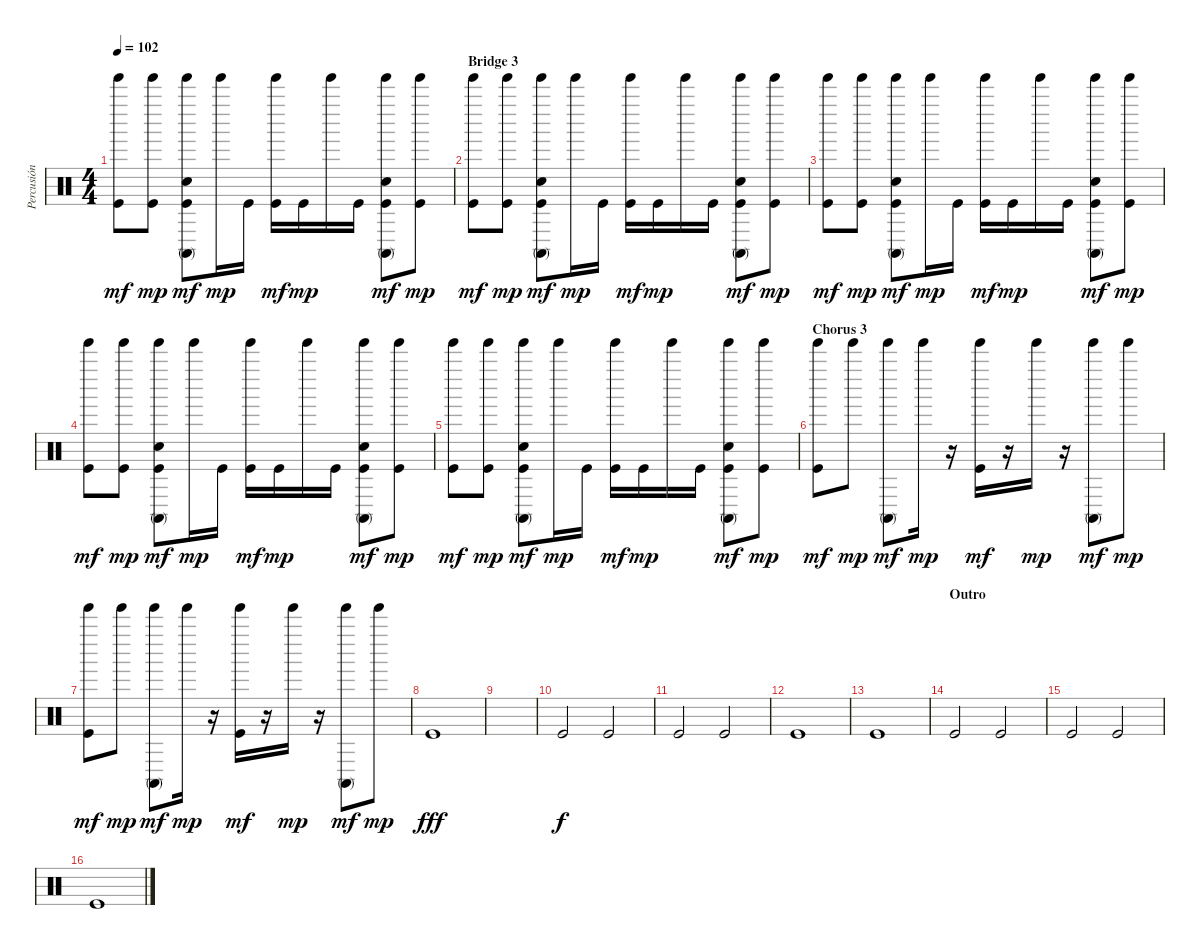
\track ("Percusión" "Percusión") {instrument percussion}
\staff {score}
\articulation defaults
\ts (4 4)
\tempo 102
\clef neutral
\ks c
("Kick (hit)" "Tinkle Bell (hit)").8{dy mf} ("Kick (hit)" "Tinkle Bell (hit)").8{dy mp} ("Kick (hit)" "Snare (hit) 2" "Conga high (mute)" "Tinkle Bell (hit)").8{dy mf} "Tinkle Bell (hit)".16{dy mp} "Kick (hit)".16 ("Kick (hit)" "Tinkle Bell (hit)").16{dy mf} "Kick (hit)".16{dy mp} "Tinkle Bell (hit)".16 "Kick (hit)".16 ("Kick (hit)" "Snare (hit) 2" "Conga high (mute)" "Tinkle Bell (hit)").8{dy mf} ("Kick (hit)" "Tinkle Bell (hit)").8{dy mp} |
\section ("" "Bridge 3")
("Kick (hit)" "Tinkle Bell (hit)").8{dy mf} ("Kick (hit)" "Tinkle Bell (hit)").8{dy mp} ("Kick (hit)" "Snare (hit) 2" "Conga high (mute)" "Tinkle Bell (hit)").8{dy mf} "Tinkle Bell (hit)".16{dy mp} "Kick (hit)".16 ("Kick (hit)" "Tinkle Bell (hit)").16{dy mf} "Kick (hit)".16{dy mp} "Tinkle Bell (hit)".16 "Kick (hit)".16 ("Kick (hit)" "Snare (hit) 2" "Conga high (mute)" "Tinkle Bell (hit)").8{dy mf} ("Kick (hit)" "Tinkle Bell (hit)").8{dy mp} |
("Kick (hit)" "Tinkle Bell (hit)").8{dy mf} ("Kick (hit)" "Tinkle Bell (hit)").8{dy mp} ("Kick (hit)" "Snare (hit) 2" "Conga high (mute)" "Tinkle Bell (hit)").8{dy mf} "Tinkle Bell (hit)".16{dy mp} "Kick (hit)".16 ("Kick (hit)" "Tinkle Bell (hit)").16{dy mf} "Kick (hit)".16{dy mp} "Tinkle Bell (hit)".16 "Kick (hit)".16 ("Kick (hit)" "Snare (hit) 2" "Conga high (mute)" "Tinkle Bell (hit)").8{dy mf} ("Kick (hit)" "Tinkle Bell (hit)").8{dy mp} |
("Kick (hit)" "Tinkle Bell (hit)").8{dy mf} ("Kick (hit)" "Tinkle Bell (hit)").8{dy mp} ("Kick (hit)" "Snare (hit) 2" "Conga high (mute)" "Tinkle Bell (hit)").8{dy mf} "Tinkle Bell (hit)".16{dy mp} "Kick (hit)".16 ("Kick (hit)" "Tinkle Bell (hit)").16{dy mf} "Kick (hit)".16{dy mp} "Tinkle Bell (hit)".16 "Kick (hit)".16 ("Kick (hit)" "Snare (hit) 2" "Conga high (mute)" "Tinkle Bell (hit)").8{dy mf} ("Kick (hit)" "Tinkle Bell (hit)").8{dy mp} |
("Kick (hit)" "Tinkle Bell (hit)").8{dy mf} ("Kick (hit)" "Tinkle Bell (hit)").8{dy mp} ("Kick (hit)" "Snare (hit) 2" "Conga high (mute)" "Tinkle Bell (hit)").8{dy mf} "Tinkle Bell (hit)".16{dy mp} "Kick (hit)".16 ("Kick (hit)" "Tinkle Bell (hit)").16{dy mf} "Kick (hit)".16{dy mp} "Tinkle Bell (hit)".16 "Kick (hit)".16 ("Kick (hit)" "Snare (hit) 2" "Conga high (mute)" "Tinkle Bell (hit)").8{dy mf} ("Kick (hit)" "Tinkle Bell (hit)").8{dy mp} |
\section ("" "Chorus 3")
("Kick (hit)" "Tinkle Bell (hit)").8{dy mf} "Tinkle Bell (hit)".8{dy mp} ("Conga high (mute)" "Tinkle Bell (hit)").8{dy mf} "Tinkle Bell (hit)".16{dy mp} r.16 ("Kick (hit)" "Tinkle Bell (hit)").16{dy mf} r.16 "Tinkle Bell (hit)".16{dy mp} r.16 ("Conga high (mute)" "Tinkle Bell (hit)").8{dy mf} "Tinkle Bell (hit)".8{dy mp} |
("Kick (hit)" "Tinkle Bell (hit)").8{dy mf} "Tinkle Bell (hit)".8{dy mp} ("Conga high (mute)" "Tinkle Bell (hit)").8{dy mf} "Tinkle Bell (hit)".16{dy mp} r.16 ("Kick (hit)" "Tinkle Bell (hit)").16{dy mf} r.16 "Tinkle Bell (hit)".16{dy mp} r.16 ("Conga high (mute)" "Tinkle Bell (hit)").8{dy mf} "Tinkle Bell (hit)".8{dy mp} |
"Kick (hit)".1{dy fff} |
|
"Kick (hit)".2{dy f} "Kick (hit)".2 |
"Kick (hit)".2 "Kick (hit)".2 |
"Kick (hit)".1 |
"Kick (hit)".1 |
\section ("" "Outro")
"Kick (hit)".2 "Kick (hit)".2 |
"Kick (hit)".2 "Kick (hit)".2 |
"Kick (hit)".1
